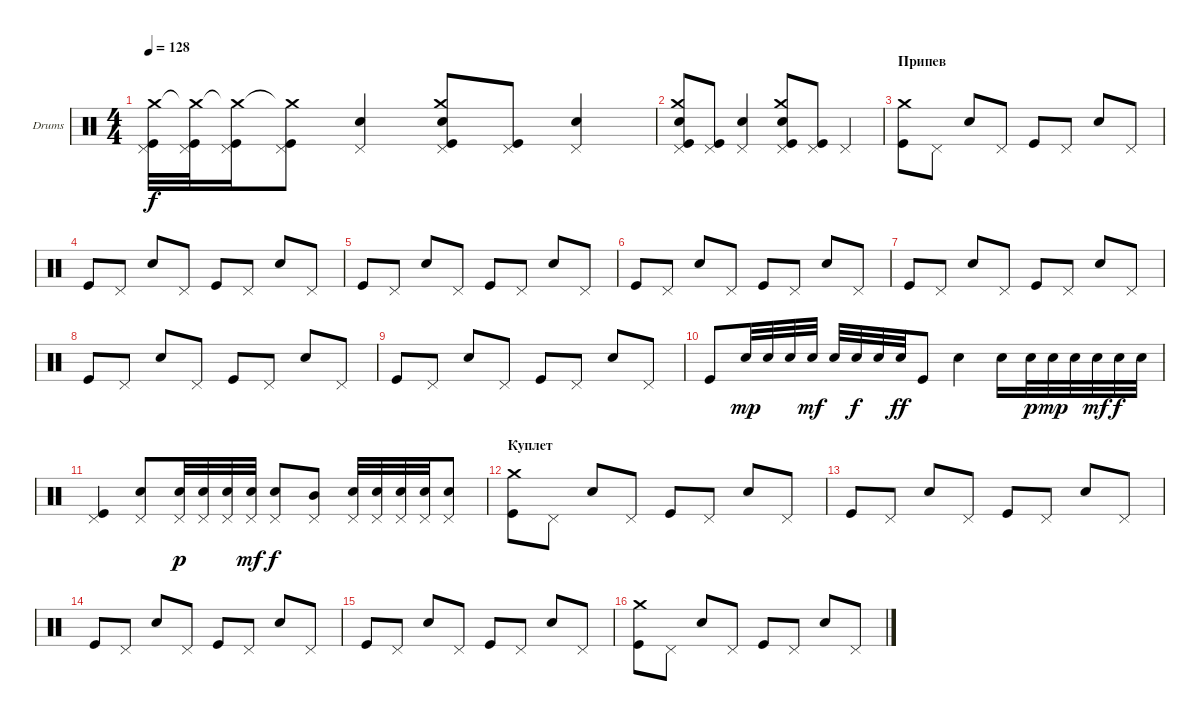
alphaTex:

\defaultSystemsLayout 4
\bracketExtendMode groupsimilarinstruments
\firstSystemTrackNameOrientation horizontal
\otherSystemsTrackNameOrientation horizontal
\track ("Е. Кулаков" "Drums") {instrument percussion}
\staff {score}
\articulation defaults
\ts (4 4)
\tempo 128
\clef neutral
\ks c
("Kick (hit)" "Pedal Hi-Hat (hit)" "Crash medium (hit)").32{dy f} ("Kick (hit)" "Pedal Hi-Hat (hit)" "Crash medium (hit)"{t}).32 ("Kick (hit)" "Pedal Hi-Hat (hit)" "Crash medium (hit)"{t}).16 ("Kick (hit)" "Pedal Hi-Hat (hit)" "Crash medium (hit)"{t}).8 ("Snare (hit) 2" "Pedal Hi-Hat (hit)").4 ("Pedal Hi-Hat (hit)" "Crash medium (hit)" "Kick (hit)" "Snare (hit) 2").8 ("Kick (hit)" "Pedal Hi-Hat (hit)").8 ("Snare (hit) 2" "Pedal Hi-Hat (hit)").4 |
("Pedal Hi-Hat (hit)" "Crash medium (hit)" "Kick (hit)" "Snare (hit) 2").8 ("Kick (hit)" "Pedal Hi-Hat (hit)").8 ("Snare (hit) 2" "Pedal Hi-Hat (hit)").4 ("Pedal Hi-Hat (hit)" "Crash medium (hit)" "Kick (hit)" "Snare (hit) 2").8 ("Kick (hit)" "Pedal Hi-Hat (hit)").8 "Pedal Hi-Hat (hit)".4 |
\section ("" "Припев")
("Kick (hit)" "Crash medium (hit)").8 "Pedal Hi-Hat (hit)".8 "Snare (hit) 2".8 "Pedal Hi-Hat (hit)".8 "Kick (hit)".8 "Pedal Hi-Hat (hit)".8 "Snare (hit) 2".8 "Pedal Hi-Hat (hit)".8 |
"Kick (hit)".8 "Pedal Hi-Hat (hit)".8 "Snare (hit) 2".8 "Pedal Hi-Hat (hit)".8 "Kick (hit)".8 "Pedal Hi-Hat (hit)".8 "Snare (hit) 2".8 "Pedal Hi-Hat (hit)".8 |
"Kick (hit)".8 "Pedal Hi-Hat (hit)".8 "Snare (hit) 2".8 "Pedal Hi-Hat (hit)".8 "Kick (hit)".8 "Pedal Hi-Hat (hit)".8 "Snare (hit) 2".8 "Pedal Hi-Hat (hit)".8 |
"Kick (hit)".8 "Pedal Hi-Hat (hit)".8 "Snare (hit) 2".8 "Pedal Hi-Hat (hit)".8 "Kick (hit)".8 "Pedal Hi-Hat (hit)".8 "Snare (hit) 2".8 "Pedal Hi-Hat (hit)".8 |
"Kick (hit)".8 "Pedal Hi-Hat (hit)".8 "Snare (hit) 2".8 "Pedal Hi-Hat (hit)".8 "Kick (hit)".8 "Pedal Hi-Hat (hit)".8 "Snare (hit) 2".8 "Pedal Hi-Hat (hit)".8 |
"Kick (hit)".8 "Pedal Hi-Hat (hit)".8 "Snare (hit) 2".8 "Pedal Hi-Hat (hit)".8 "Kick (hit)".8 "Pedal Hi-Hat (hit)".8 "Snare (hit) 2".8 "Pedal Hi-Hat (hit)".8 |
"Kick (hit)".8 "Pedal Hi-Hat (hit)".8 "Snare (hit) 2".8 "Pedal Hi-Hat (hit)".8 "Kick (hit)".8 "Pedal Hi-Hat (hit)".8 "Snare (hit) 2".8 "Pedal Hi-Hat (hit)".8 |
"Kick (hit)".8 "Snare (hit) 2".32{dy mp} "Snare (hit) 2".32 "Snare (hit) 2".32 "Snare (hit) 2".32{dy mf} "Snare (hit) 2".32 "Snare (hit) 2".32{dy f} "Snare (hit) 2".32 "Snare (hit) 2".32{dy ff} "Kick (hit)".8 "Snare (hit) 2".4 "Snare (hit) 2".16 "Snare (hit) 2".32{dy p} "Snare (hit) 2".32{dy mp} "Snare (hit) 2".32 "Snare (hit) 2".32{dy mf} "Snare (hit) 2".32{dy f} "Snare (hit) 2".32 |
("Kick (hit)" "Pedal Hi-Hat (hit)").4 ("Snare (hit) 2" "Pedal Hi-Hat (hit)").8 ("Snare (hit) 2" "Pedal Hi-Hat (hit)").32{dy p} ("Snare (hit) 2" "Pedal Hi-Hat (hit)").32 ("Snare (hit) 2" "Pedal Hi-Hat (hit)").32 ("Snare (hit) 2" "Pedal Hi-Hat (hit)").32{dy mf} ("Snare (hit) 2" "Pedal Hi-Hat (hit)").8{dy f} ("Pedal Hi-Hat (hit)" "Mid Tom (hit)").8 ("Snare (hit) 2" "Pedal Hi-Hat (hit)").32 ("Snare (hit) 2" "Pedal Hi-Hat (hit)").32 ("Snare (hit) 2" "Pedal Hi-Hat (hit)").32 ("Snare (hit) 2" "Pedal Hi-Hat (hit)").32 ("Snare (hit) 2" "Pedal Hi-Hat (hit)").8 |
\section ("" "Куплет")
("Kick (hit)" "Crash medium (hit)").8 "Pedal Hi-Hat (hit)".8 "Snare (hit) 2".8 "Pedal Hi-Hat (hit)".8 "Kick (hit)".8 "Pedal Hi-Hat (hit)".8 "Snare (hit) 2".8 "Pedal Hi-Hat (hit)".8 |
"Kick (hit)".8 "Pedal Hi-Hat (hit)".8 "Snare (hit) 2".8 "Pedal Hi-Hat (hit)".8 "Kick (hit)".8 "Pedal Hi-Hat (hit)".8 "Snare (hit) 2".8 "Pedal Hi-Hat (hit)".8 |
"Kick (hit)".8 "Pedal Hi-Hat (hit)".8 "Snare (hit) 2".8 "Pedal Hi-Hat (hit)".8 "Kick (hit)".8 "Pedal Hi-Hat (hit)".8 "Snare (hit) 2".8 "Pedal Hi-Hat (hit)".8 |
"Kick (hit)".8 "Pedal Hi-Hat (hit)".8 "Snare (hit) 2".8 "Pedal Hi-Hat (hit)".8 "Kick (hit)".8 "Pedal Hi-Hat (hit)".8 "Snare (hit) 2".8 "Pedal Hi-Hat (hit)".8 |
("Kick (hit)" "Crash medium (hit)").8 "Pedal Hi-Hat (hit)".8 "Snare (hit) 2".8 "Pedal Hi-Hat (hit)".8 "Kick (hit)".8 "Pedal Hi-Hat (hit)".8 "Snare (hit) 2".8 "Pedal Hi-Hat (hit)".8
